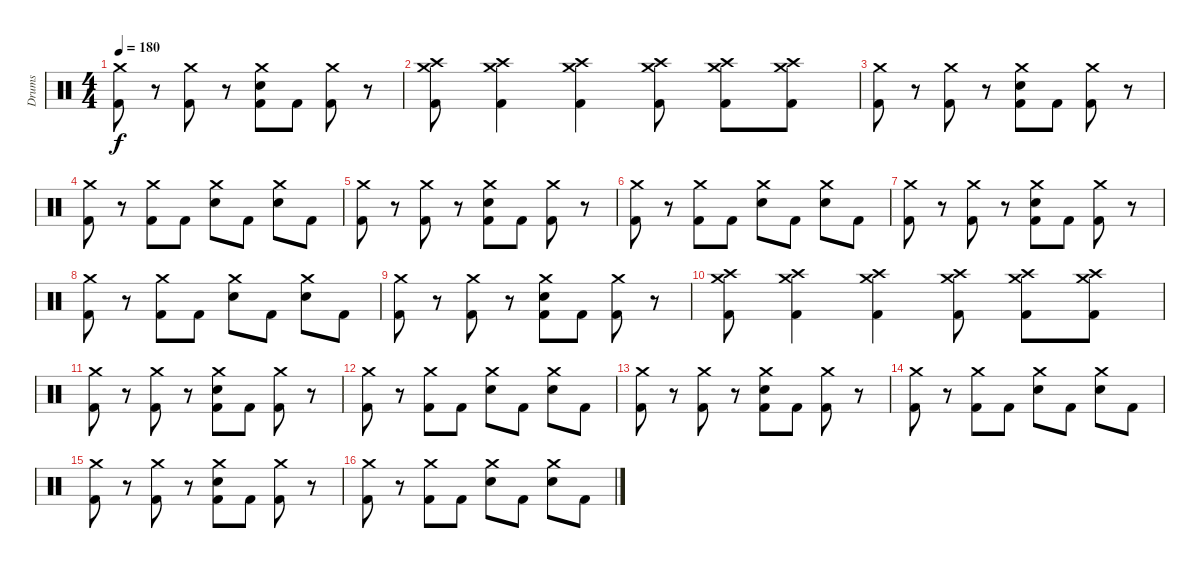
\track ("Drums" "Drums") {instrument percussion}
\staff {score}
\articulation defaults
\ts (4 4)
\tempo 180
\clef neutral
\ks c
("Crash medium (hit)" "Kick (hit) 2").8{dy f} r.8 ("Crash medium (hit)" "Kick (hit) 2").8 r.8 ("Crash medium (hit)" "Snare (hit) 2" "Kick (hit) 2").8 "Kick (hit) 2".8 ("Crash medium (hit)" "Kick (hit) 2").8 r.8 |
("Crash high (hit)" "Crash medium (hit)" "Kick (hit) 2").8 ("Crash high (hit)" "Crash medium (hit)" "Kick (hit) 2").4 ("Crash high (hit)" "Crash medium (hit)" "Kick (hit) 2").4 ("Crash high (hit)" "Crash medium (hit)" "Kick (hit) 2").8 ("Crash high (hit)" "Crash medium (hit)" "Kick (hit) 2").8 ("Crash high (hit)" "Crash medium (hit)" "Kick (hit) 2").8 |
("Crash medium (hit)" "Kick (hit) 2").8 r.8 ("Crash medium (hit)" "Kick (hit) 2").8 r.8 ("Crash medium (hit)" "Snare (hit) 2" "Kick (hit) 2").8 "Kick (hit) 2".8 ("Crash medium (hit)" "Kick (hit) 2").8 r.8 |
("Crash medium (hit)" "Kick (hit) 2").8 r.8 ("Crash medium (hit)" "Kick (hit) 2").8 "Kick (hit) 2".8 ("Crash medium (hit)" "Snare (hit) 2").8 "Kick (hit) 2".8 ("Crash medium (hit)" "Snare (hit) 2").8 "Kick (hit) 2".8 |
("Crash medium (hit)" "Kick (hit) 2").8 r.8 ("Crash medium (hit)" "Kick (hit) 2").8 r.8 ("Crash medium (hit)" "Snare (hit) 2" "Kick (hit) 2").8 "Kick (hit) 2".8 ("Crash medium (hit)" "Kick (hit) 2").8 r.8 |
("Crash medium (hit)" "Kick (hit) 2").8 r.8 ("Crash medium (hit)" "Kick (hit) 2").8 "Kick (hit) 2".8 ("Crash medium (hit)" "Snare (hit) 2").8 "Kick (hit) 2".8 ("Crash medium (hit)" "Snare (hit) 2").8 "Kick (hit) 2".8 |
("Crash medium (hit)" "Kick (hit) 2").8 r.8 ("Crash medium (hit)" "Kick (hit) 2").8 r.8 ("Crash medium (hit)" "Snare (hit) 2" "Kick (hit) 2").8 "Kick (hit) 2".8 ("Crash medium (hit)" "Kick (hit) 2").8 r.8 |
("Crash medium (hit)" "Kick (hit) 2").8 r.8 ("Crash medium (hit)" "Kick (hit) 2").8 "Kick (hit) 2".8 ("Crash medium (hit)" "Snare (hit) 2").8 "Kick (hit) 2".8 ("Crash medium (hit)" "Snare (hit) 2").8 "Kick (hit) 2".8 |
("Crash medium (hit)" "Kick (hit) 2").8 r.8 ("Crash medium (hit)" "Kick (hit) 2").8 r.8 ("Crash medium (hit)" "Snare (hit) 2" "Kick (hit) 2").8 "Kick (hit) 2".8 ("Crash medium (hit)" "Kick (hit) 2").8 r.8 |
("Crash high (hit)" "Crash medium (hit)" "Kick (hit) 2").8 ("Crash high (hit)" "Crash medium (hit)" "Kick (hit) 2").4 ("Crash high (hit)" "Crash medium (hit)" "Kick (hit) 2").4 ("Crash high (hit)" "Crash medium (hit)" "Kick (hit) 2").8 ("Crash high (hit)" "Crash medium (hit)" "Kick (hit) 2").8 ("Crash high (hit)" "Crash medium (hit)" "Kick (hit) 2").8 |
("Crash medium (hit)" "Kick (hit) 2").8 r.8 ("Crash medium (hit)" "Kick (hit) 2").8 r.8 ("Crash medium (hit)" "Snare (hit) 2" "Kick (hit) 2").8 "Kick (hit) 2".8 ("Crash medium (hit)" "Kick (hit) 2").8 r.8 |
("Crash medium (hit)" "Kick (hit) 2").8 r.8 ("Crash medium (hit)" "Kick (hit) 2").8 "Kick (hit) 2".8 ("Crash medium (hit)" "Snare (hit) 2").8 "Kick (hit) 2".8 ("Crash medium (hit)" "Snare (hit) 2").8 "Kick (hit) 2".8 |
("Crash medium (hit)" "Kick (hit) 2").8 r.8 ("Crash medium (hit)" "Kick (hit) 2").8 r.8 ("Crash medium (hit)" "Snare (hit) 2" "Kick (hit) 2").8 "Kick (hit) 2".8 ("Crash medium (hit)" "Kick (hit) 2").8 r.8 |
("Crash medium (hit)" "Kick (hit) 2").8 r.8 ("Crash medium (hit)" "Kick (hit) 2").8 "Kick (hit) 2".8 ("Crash medium (hit)" "Snare (hit) 2").8 "Kick (hit) 2".8 ("Crash medium (hit)" "Snare (hit) 2").8 "Kick (hit) 2".8 |
("Crash medium (hit)" "Kick (hit) 2").8 r.8 ("Crash medium (hit)" "Kick (hit) 2").8 r.8 ("Crash medium (hit)" "Snare (hit) 2" "Kick (hit) 2").8 "Kick (hit) 2".8 ("Crash medium (hit)" "Kick (hit) 2").8 r.8 |
("Crash medium (hit)" "Kick (hit) 2").8 r.8 ("Crash medium (hit)" "Kick (hit) 2").8 "Kick (hit) 2".8 ("Crash medium (hit)" "Snare (hit) 2").8 "Kick (hit) 2".8 ("Crash medium (hit)" "Snare (hit) 2").8 "Kick (hit) 2".8
